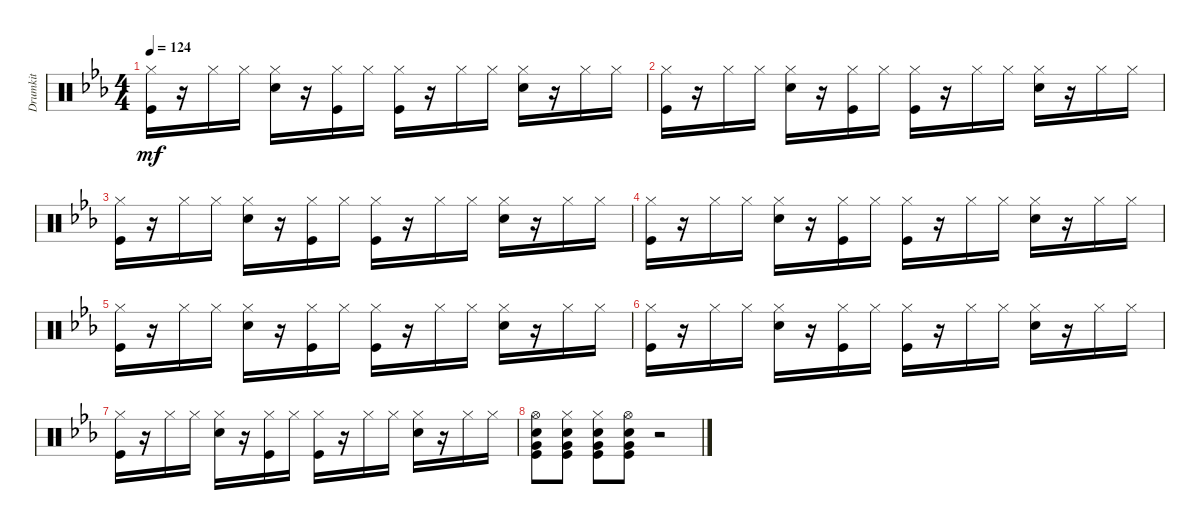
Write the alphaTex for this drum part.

\track ("Drumkit" "Drumkit") {instrument percussion}
\staff {score}
\articulation defaults
\ts (4 4)
\tempo 124
\clef neutral
\ks eb
("Hi-Hat (closed)" "Kick (hit)").16{dy mf} r.16 "Hi-Hat (closed)".16 "Hi-Hat (closed)".16 ("Hi-Hat (closed)" "Snare (hit) 2").16 r.16 ("Hi-Hat (closed)" "Kick (hit)").16 "Hi-Hat (closed)".16 ("Hi-Hat (closed)" "Kick (hit)").16 r.16 "Hi-Hat (closed)".16 "Hi-Hat (closed)".16 ("Hi-Hat (closed)" "Snare (hit) 2").16 r.16 "Hi-Hat (closed)".16 "Hi-Hat (closed)".16 |
("Hi-Hat (closed)" "Kick (hit)").16 r.16 "Hi-Hat (closed)".16 "Hi-Hat (closed)".16 ("Hi-Hat (closed)" "Snare (hit) 2").16 r.16 ("Hi-Hat (closed)" "Kick (hit)").16 "Hi-Hat (closed)".16 ("Hi-Hat (closed)" "Kick (hit)").16 r.16 "Hi-Hat (closed)".16 "Hi-Hat (closed)".16 ("Hi-Hat (closed)" "Snare (hit) 2").16 r.16 "Hi-Hat (closed)".16 "Hi-Hat (closed)".16 |
("Hi-Hat (closed)" "Kick (hit)").16 r.16 "Hi-Hat (closed)".16 "Hi-Hat (closed)".16 ("Hi-Hat (closed)" "Snare (hit) 2").16 r.16 ("Hi-Hat (closed)" "Kick (hit)").16 "Hi-Hat (closed)".16 ("Hi-Hat (closed)" "Kick (hit)").16 r.16 "Hi-Hat (closed)".16 "Hi-Hat (closed)".16 ("Hi-Hat (closed)" "Snare (hit) 2").16 r.16 "Hi-Hat (closed)".16 "Hi-Hat (closed)".16 |
("Hi-Hat (closed)" "Kick (hit)").16 r.16 "Hi-Hat (closed)".16 "Hi-Hat (closed)".16 ("Hi-Hat (closed)" "Snare (hit) 2").16 r.16 ("Hi-Hat (closed)" "Kick (hit)").16 "Hi-Hat (closed)".16 ("Hi-Hat (closed)" "Kick (hit)").16 r.16 "Hi-Hat (closed)".16 "Hi-Hat (closed)".16 ("Hi-Hat (closed)" "Snare (hit) 2").16 r.16 "Hi-Hat (closed)".16 "Hi-Hat (closed)".16 |
("Hi-Hat (closed)" "Kick (hit)").16 r.16 "Hi-Hat (closed)".16 "Hi-Hat (closed)".16 ("Hi-Hat (closed)" "Snare (hit) 2").16 r.16 ("Hi-Hat (closed)" "Kick (hit)").16 "Hi-Hat (closed)".16 ("Hi-Hat (closed)" "Kick (hit)").16 r.16 "Hi-Hat (closed)".16 "Hi-Hat (closed)".16 ("Hi-Hat (closed)" "Snare (hit) 2").16 r.16 "Hi-Hat (closed)".16 "Hi-Hat (closed)".16 |
("Hi-Hat (closed)" "Kick (hit)").16 r.16 "Hi-Hat (closed)".16 "Hi-Hat (closed)".16 ("Hi-Hat (closed)" "Snare (hit) 2").16 r.16 ("Hi-Hat (closed)" "Kick (hit)").16 "Hi-Hat (closed)".16 ("Hi-Hat (closed)" "Kick (hit)").16 r.16 "Hi-Hat (closed)".16 "Hi-Hat (closed)".16 ("Hi-Hat (closed)" "Snare (hit) 2").16 r.16 "Hi-Hat (closed)".16 "Hi-Hat (closed)".16 |
("Hi-Hat (closed)" "Kick (hit)").16 r.16 "Hi-Hat (closed)".16 "Hi-Hat (closed)".16 ("Hi-Hat (closed)" "Snare (hit) 2").16 r.16 ("Hi-Hat (closed)" "Kick (hit)").16 "Hi-Hat (closed)".16 ("Hi-Hat (closed)" "Kick (hit)").16 r.16 "Hi-Hat (closed)".16 "Hi-Hat (closed)".16 ("Hi-Hat (closed)" "Snare (hit) 2").16 r.16 "Hi-Hat (closed)".16 "Hi-Hat (closed)".16 |
("Snare (hit) 2" "Kick (hit)" "Very Low Tom (hit)" "Hi-Hat (open)").8 ("Hi-Hat (closed)" "Snare (hit) 2" "Kick (hit)" "Very Low Tom (hit)").8 ("Hi-Hat (closed)" "Snare (hit) 2" "Kick (hit)" "Very Low Tom (hit)").8 ("Snare (hit) 2" "Kick (hit)" "Very Low Tom (hit)" "Hi-Hat (open)").8 r.2
